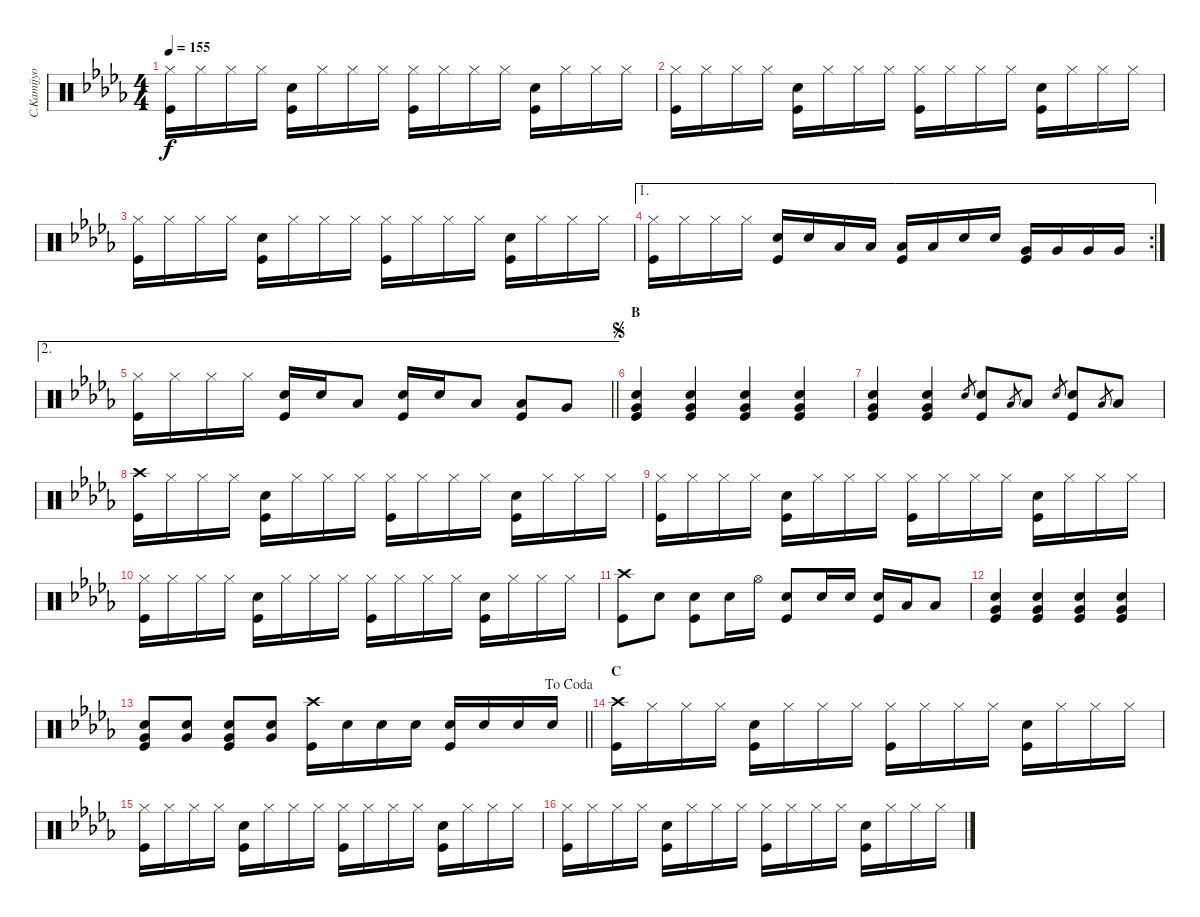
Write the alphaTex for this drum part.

\track ("C.Kamijyo DRUMS" "C.Kamijyo ") {instrument percussion}
\staff {score}
\articulation defaults
\ts (4 4)
\tempo 155
\clef neutral
\ks db
("Hi-Hat (closed)" "Kick (hit)").16{dy f} "Hi-Hat (closed)".16 "Hi-Hat (closed)".16 "Hi-Hat (closed)".16 ("Snare (hit) 2" "Kick (hit)").16 "Hi-Hat (closed)".16 "Hi-Hat (closed)".16 "Hi-Hat (closed)".16 ("Hi-Hat (closed)" "Kick (hit)").16 "Hi-Hat (closed)".16 "Hi-Hat (closed)".16 "Hi-Hat (closed)".16 ("Snare (hit) 2" "Kick (hit)").16 "Hi-Hat (closed)".16 "Hi-Hat (closed)".16 "Hi-Hat (closed)".16 |
("Hi-Hat (closed)" "Kick (hit)").16 "Hi-Hat (closed)".16 "Hi-Hat (closed)".16 "Hi-Hat (closed)".16 ("Snare (hit) 2" "Kick (hit)").16 "Hi-Hat (closed)".16 "Hi-Hat (closed)".16 "Hi-Hat (closed)".16 ("Hi-Hat (closed)" "Kick (hit)").16 "Hi-Hat (closed)".16 "Hi-Hat (closed)".16 "Hi-Hat (closed)".16 ("Snare (hit) 2" "Kick (hit)").16 "Hi-Hat (closed)".16 "Hi-Hat (closed)".16 "Hi-Hat (closed)".16 |
("Hi-Hat (closed)" "Kick (hit)").16 "Hi-Hat (closed)".16 "Hi-Hat (closed)".16 "Hi-Hat (closed)".16 ("Snare (hit) 2" "Kick (hit)").16 "Hi-Hat (closed)".16 "Hi-Hat (closed)".16 "Hi-Hat (closed)".16 ("Hi-Hat (closed)" "Kick (hit)").16 "Hi-Hat (closed)".16 "Hi-Hat (closed)".16 "Hi-Hat (closed)".16 ("Snare (hit) 2" "Kick (hit)").16 "Hi-Hat (closed)".16 "Hi-Hat (closed)".16 "Hi-Hat (closed)".16 |
\ae 1
\rc 2
("Hi-Hat (closed)" "Kick (hit)").16 "Hi-Hat (closed)".16 "Hi-Hat (closed)".16 "Hi-Hat (closed)".16 ("Snare (hit) 2" "Kick (hit)").16 "Snare (hit) 2".16 "Low Tom (hit)".16 "Low Tom (hit)".16 ("Low Tom (hit)" "Kick (hit)").16 "Low Tom (hit)".16 "Snare (hit) 2".16 "Snare (hit) 2".16 ("Very Low Tom (hit)" "Kick (hit)").16 "Very Low Tom (hit)".16 "Very Low Tom (hit)".16 "Very Low Tom (hit)".16 |
\ae 2
\barLineRight lightlight
("Hi-Hat (closed)" "Kick (hit)").16 "Hi-Hat (closed)".16 "Hi-Hat (closed)".16 "Hi-Hat (closed)".16 ("Snare (hit) 2" "Kick (hit)").16 "Snare (hit) 2".16 "Low Tom (hit)".8 ("Snare (hit) 2" "Kick (hit)").16 "Snare (hit) 2".16 "Low Tom (hit)".8 ("Low Tom (hit)" "Kick (hit)").8 "Very Low Tom (hit)".8 |
\section ("" "B")
\jump segno
("Snare (hit) 2" "Kick (hit)" "Very Low Tom (hit)").4 ("Snare (hit) 2" "Kick (hit)" "Very Low Tom (hit)").4 ("Snare (hit) 2" "Kick (hit)" "Very Low Tom (hit)").4 ("Snare (hit) 2" "Kick (hit)" "Very Low Tom (hit)").4 |
("Snare (hit) 2" "Kick (hit)" "Very Low Tom (hit)").4 ("Snare (hit) 2" "Kick (hit)" "Very Low Tom (hit)").4 "Snare (hit) 2".8{gr} ("Snare (hit) 2" "Kick (hit)").8 "Low Tom (hit)".8{gr} "Low Tom (hit)".8 "Snare (hit) 2".8{gr} ("Snare (hit) 2" "Kick (hit)").8 "Low Tom (hit)".8{gr} "Low Tom (hit)".8 |
("Crash high (hit)" "Kick (hit)").16 "Hi-Hat (closed)".16 "Hi-Hat (closed)".16 "Hi-Hat (closed)".16 ("Snare (hit) 2" "Kick (hit)").16 "Hi-Hat (closed)".16 "Hi-Hat (closed)".16 "Hi-Hat (closed)".16 ("Hi-Hat (closed)" "Kick (hit)").16 "Hi-Hat (closed)".16 "Hi-Hat (closed)".16 "Hi-Hat (closed)".16 ("Snare (hit) 2" "Kick (hit)").16 "Hi-Hat (closed)".16 "Hi-Hat (closed)".16 "Hi-Hat (closed)".16 |
("Hi-Hat (closed)" "Kick (hit)").16 "Hi-Hat (closed)".16 "Hi-Hat (closed)".16 "Hi-Hat (closed)".16 ("Snare (hit) 2" "Kick (hit)").16 "Hi-Hat (closed)".16 "Hi-Hat (closed)".16 "Hi-Hat (closed)".16 ("Hi-Hat (closed)" "Kick (hit)").16 "Hi-Hat (closed)".16 "Hi-Hat (closed)".16 "Hi-Hat (closed)".16 ("Snare (hit) 2" "Kick (hit)").16 "Hi-Hat (closed)".16 "Hi-Hat (closed)".16 "Hi-Hat (closed)".16 |
("Hi-Hat (closed)" "Kick (hit)").16 "Hi-Hat (closed)".16 "Hi-Hat (closed)".16 "Hi-Hat (closed)".16 ("Snare (hit) 2" "Kick (hit)").16 "Hi-Hat (closed)".16 "Hi-Hat (closed)".16 "Hi-Hat (closed)".16 ("Hi-Hat (closed)" "Kick (hit)").16 "Hi-Hat (closed)".16 "Hi-Hat (closed)".16 "Hi-Hat (closed)".16 ("Snare (hit) 2" "Kick (hit)").16 "Hi-Hat (closed)".16 "Hi-Hat (closed)".16 "Hi-Hat (closed)".16 |
("Crash high (hit)" "Kick (hit)").8 "Snare (hit) 2".8 ("Snare (hit) 2" "Kick (hit)").8 "Snare (hit) 2".16 "Hi-Hat (open)".16 ("Snare (hit) 2" "Kick (hit)").8 "Snare (hit) 2".16 "Snare (hit) 2".16 ("Snare (hit) 2" "Kick (hit)").16 "Low Tom (hit)".16 "Low Tom (hit)".8 |
("Snare (hit) 2" "Kick (hit)" "Very Low Tom (hit)").4 ("Snare (hit) 2" "Kick (hit)" "Very Low Tom (hit)").4 ("Snare (hit) 2" "Kick (hit)" "Very Low Tom (hit)").4 ("Snare (hit) 2" "Kick (hit)" "Very Low Tom (hit)").4 |
\jump dacoda
\barLineRight lightlight
("Snare (hit) 2" "Very Low Tom (hit)" "Kick (hit)").8 ("Snare (hit) 2" "Very Low Tom (hit)").8 ("Snare (hit) 2" "Very Low Tom (hit)" "Kick (hit)").8 ("Snare (hit) 2" "Very Low Tom (hit)").8 ("Crash high (hit)" "Kick (hit)").16 "Snare (hit) 2".16 "Snare (hit) 2".16 "Snare (hit) 2".16 ("Snare (hit) 2" "Kick (hit)").16 "Snare (hit) 2".16 "Snare (hit) 2".16 "Snare (hit) 2".16 |
\section ("" "C")
("Crash high (hit)" "Kick (hit)").16 "Hi-Hat (closed)".16 "Hi-Hat (closed)".16 "Hi-Hat (closed)".16 ("Snare (hit) 2" "Kick (hit)").16 "Hi-Hat (closed)".16 "Hi-Hat (closed)".16 "Hi-Hat (closed)".16 ("Hi-Hat (closed)" "Kick (hit)").16 "Hi-Hat (closed)".16 "Hi-Hat (closed)".16 "Hi-Hat (closed)".16 ("Snare (hit) 2" "Kick (hit)").16 "Hi-Hat (closed)".16 "Hi-Hat (closed)".16 "Hi-Hat (closed)".16 |
("Hi-Hat (closed)" "Kick (hit)").16 "Hi-Hat (closed)".16 "Hi-Hat (closed)".16 "Hi-Hat (closed)".16 ("Snare (hit) 2" "Kick (hit)").16 "Hi-Hat (closed)".16 "Hi-Hat (closed)".16 "Hi-Hat (closed)".16 ("Hi-Hat (closed)" "Kick (hit)").16 "Hi-Hat (closed)".16 "Hi-Hat (closed)".16 "Hi-Hat (closed)".16 ("Snare (hit) 2" "Kick (hit)").16 "Hi-Hat (closed)".16 "Hi-Hat (closed)".16 "Hi-Hat (closed)".16 |
("Hi-Hat (closed)" "Kick (hit)").16 "Hi-Hat (closed)".16 "Hi-Hat (closed)".16 "Hi-Hat (closed)".16 ("Snare (hit) 2" "Kick (hit)").16 "Hi-Hat (closed)".16 "Hi-Hat (closed)".16 "Hi-Hat (closed)".16 ("Hi-Hat (closed)" "Kick (hit)").16 "Hi-Hat (closed)".16 "Hi-Hat (closed)".16 "Hi-Hat (closed)".16 ("Snare (hit) 2" "Kick (hit)").16 "Hi-Hat (closed)".16 "Hi-Hat (closed)".16 "Hi-Hat (closed)".16
